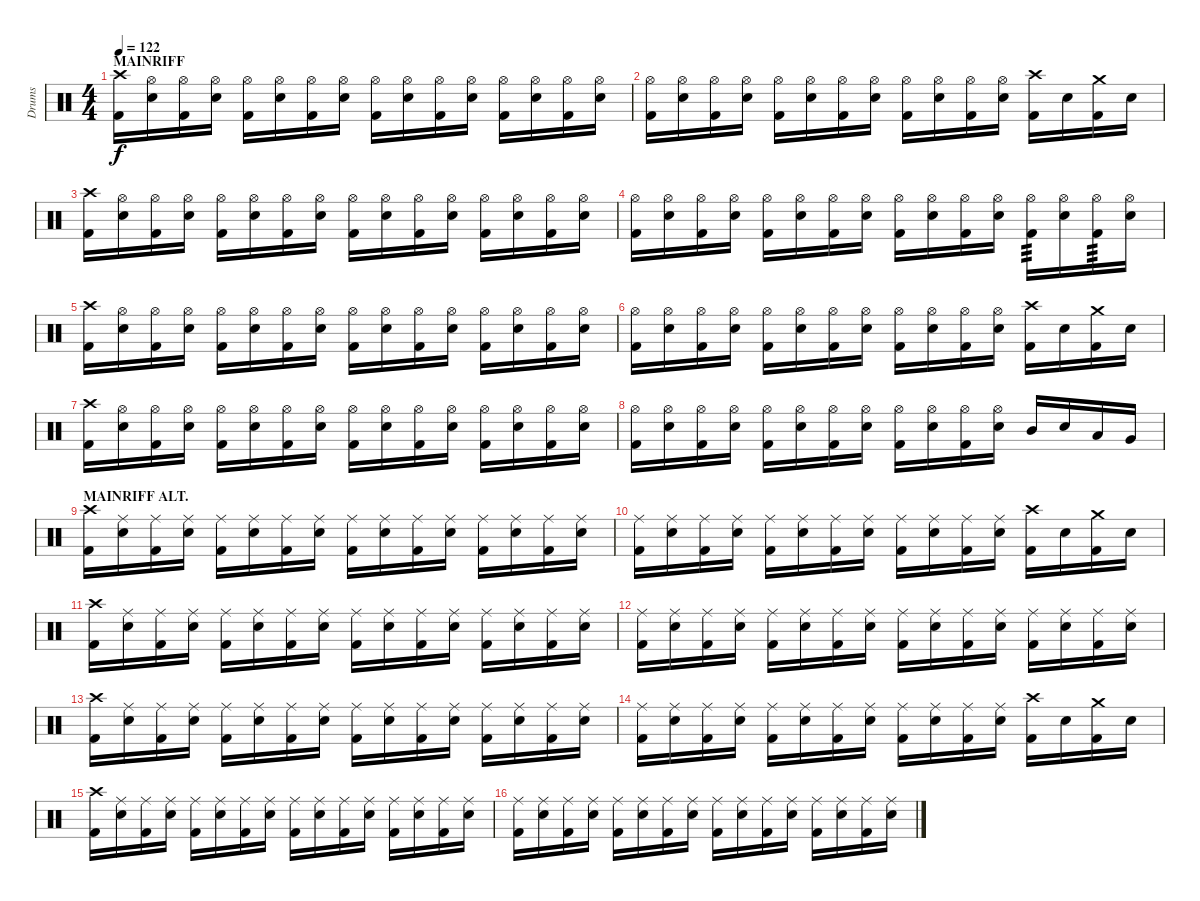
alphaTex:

\track ("Drums" "Drums") {instrument percussion}
\staff {score}
\articulation defaults
\ts (4 4)
\section ("" "MAINRIFF ")
\tempo 122
\clef neutral
\ks c
("Crash high (hit)" "Kick (hit) 2").16{dy f} ("Hi-Hat (open)" "Electric Snare (hit)").16 ("Hi-Hat (open)" "Kick (hit) 2").16 ("Hi-Hat (open)" "Electric Snare (hit)").16 ("Hi-Hat (open)" "Kick (hit) 2").16 ("Hi-Hat (open)" "Electric Snare (hit)").16 ("Hi-Hat (open)" "Kick (hit) 2").16 ("Hi-Hat (open)" "Electric Snare (hit)").16 ("Hi-Hat (open)" "Kick (hit) 2").16 ("Hi-Hat (open)" "Electric Snare (hit)").16 ("Hi-Hat (open)" "Kick (hit) 2").16 ("Hi-Hat (open)" "Electric Snare (hit)").16 ("Hi-Hat (open)" "Kick (hit) 2").16 ("Hi-Hat (open)" "Electric Snare (hit)").16 ("Hi-Hat (open)" "Kick (hit) 2").16 ("Hi-Hat (open)" "Electric Snare (hit)").16 |
("Hi-Hat (open)" "Kick (hit) 2").16 ("Hi-Hat (open)" "Electric Snare (hit)").16 ("Hi-Hat (open)" "Kick (hit) 2").16 ("Hi-Hat (open)" "Electric Snare (hit)").16 ("Hi-Hat (open)" "Kick (hit) 2").16 ("Hi-Hat (open)" "Electric Snare (hit)").16 ("Hi-Hat (open)" "Kick (hit) 2").16 ("Hi-Hat (open)" "Electric Snare (hit)").16 ("Hi-Hat (open)" "Kick (hit) 2").16 ("Hi-Hat (open)" "Electric Snare (hit)").16 ("Hi-Hat (open)" "Kick (hit) 2").16 ("Hi-Hat (open)" "Electric Snare (hit)").16 ("Crash high (hit)" "Kick (hit) 2").16 "Electric Snare (hit)".16 ("Crash medium (hit)" "Kick (hit) 2").16 "Electric Snare (hit)".16 |
("Crash high (hit)" "Kick (hit) 2").16 ("Hi-Hat (open)" "Electric Snare (hit)").16 ("Hi-Hat (open)" "Kick (hit) 2").16 ("Hi-Hat (open)" "Electric Snare (hit)").16 ("Hi-Hat (open)" "Kick (hit) 2").16 ("Hi-Hat (open)" "Electric Snare (hit)").16 ("Hi-Hat (open)" "Kick (hit) 2").16 ("Hi-Hat (open)" "Electric Snare (hit)").16 ("Hi-Hat (open)" "Kick (hit) 2").16 ("Hi-Hat (open)" "Electric Snare (hit)").16 ("Hi-Hat (open)" "Kick (hit) 2").16 ("Hi-Hat (open)" "Electric Snare (hit)").16 ("Hi-Hat (open)" "Kick (hit) 2").16 ("Hi-Hat (open)" "Electric Snare (hit)").16 ("Hi-Hat (open)" "Kick (hit) 2").16 ("Hi-Hat (open)" "Electric Snare (hit)").16 |
("Hi-Hat (open)" "Kick (hit) 2").16 ("Hi-Hat (open)" "Electric Snare (hit)").16 ("Hi-Hat (open)" "Kick (hit) 2").16 ("Hi-Hat (open)" "Electric Snare (hit)").16 ("Hi-Hat (open)" "Kick (hit) 2").16 ("Hi-Hat (open)" "Electric Snare (hit)").16 ("Hi-Hat (open)" "Kick (hit) 2").16 ("Hi-Hat (open)" "Electric Snare (hit)").16 ("Hi-Hat (open)" "Kick (hit) 2").16 ("Hi-Hat (open)" "Electric Snare (hit)").16 ("Hi-Hat (open)" "Kick (hit) 2").16 ("Hi-Hat (open)" "Electric Snare (hit)").16 ("Hi-Hat (open)" "Kick (hit) 2").16{tp 3} ("Hi-Hat (open)" "Electric Snare (hit)").16 ("Hi-Hat (open)" "Kick (hit) 2").16{tp 3} ("Hi-Hat (open)" "Electric Snare (hit)").16 |
("Crash high (hit)" "Kick (hit) 2").16 ("Hi-Hat (open)" "Electric Snare (hit)").16 ("Hi-Hat (open)" "Kick (hit) 2").16 ("Hi-Hat (open)" "Electric Snare (hit)").16 ("Hi-Hat (open)" "Kick (hit) 2").16 ("Hi-Hat (open)" "Electric Snare (hit)").16 ("Hi-Hat (open)" "Kick (hit) 2").16 ("Hi-Hat (open)" "Electric Snare (hit)").16 ("Hi-Hat (open)" "Kick (hit) 2").16 ("Hi-Hat (open)" "Electric Snare (hit)").16 ("Hi-Hat (open)" "Kick (hit) 2").16 ("Hi-Hat (open)" "Electric Snare (hit)").16 ("Hi-Hat (open)" "Kick (hit) 2").16 ("Hi-Hat (open)" "Electric Snare (hit)").16 ("Hi-Hat (open)" "Kick (hit) 2").16 ("Hi-Hat (open)" "Electric Snare (hit)").16 |
("Hi-Hat (open)" "Kick (hit) 2").16 ("Hi-Hat (open)" "Electric Snare (hit)").16 ("Hi-Hat (open)" "Kick (hit) 2").16 ("Hi-Hat (open)" "Electric Snare (hit)").16 ("Hi-Hat (open)" "Kick (hit) 2").16 ("Hi-Hat (open)" "Electric Snare (hit)").16 ("Hi-Hat (open)" "Kick (hit) 2").16 ("Hi-Hat (open)" "Electric Snare (hit)").16 ("Hi-Hat (open)" "Kick (hit) 2").16 ("Hi-Hat (open)" "Electric Snare (hit)").16 ("Hi-Hat (open)" "Kick (hit) 2").16 ("Hi-Hat (open)" "Electric Snare (hit)").16 ("Crash high (hit)" "Kick (hit) 2").16 "Electric Snare (hit)".16 ("Crash medium (hit)" "Kick (hit) 2").16 "Electric Snare (hit)".16 |
("Crash high (hit)" "Kick (hit) 2").16 ("Hi-Hat (open)" "Electric Snare (hit)").16 ("Hi-Hat (open)" "Kick (hit) 2").16 ("Hi-Hat (open)" "Electric Snare (hit)").16 ("Hi-Hat (open)" "Kick (hit) 2").16 ("Hi-Hat (open)" "Electric Snare (hit)").16 ("Hi-Hat (open)" "Kick (hit) 2").16 ("Hi-Hat (open)" "Electric Snare (hit)").16 ("Hi-Hat (open)" "Kick (hit) 2").16 ("Hi-Hat (open)" "Electric Snare (hit)").16 ("Hi-Hat (open)" "Kick (hit) 2").16 ("Hi-Hat (open)" "Electric Snare (hit)").16 ("Hi-Hat (open)" "Kick (hit) 2").16 ("Hi-Hat (open)" "Electric Snare (hit)").16 ("Hi-Hat (open)" "Kick (hit) 2").16 ("Hi-Hat (open)" "Electric Snare (hit)").16 |
("Hi-Hat (open)" "Kick (hit) 2").16 ("Hi-Hat (open)" "Electric Snare (hit)").16 ("Hi-Hat (open)" "Kick (hit) 2").16 ("Hi-Hat (open)" "Electric Snare (hit)").16 ("Hi-Hat (open)" "Kick (hit) 2").16 ("Hi-Hat (open)" "Electric Snare (hit)").16 ("Hi-Hat (open)" "Kick (hit) 2").16 ("Hi-Hat (open)" "Electric Snare (hit)").16 ("Hi-Hat (open)" "Kick (hit) 2").16 ("Hi-Hat (open)" "Electric Snare (hit)").16 ("Hi-Hat (open)" "Kick (hit) 2").16 ("Hi-Hat (open)" "Electric Snare (hit)").16 "Mid Tom (hit)".16 "Electric Snare (hit)".16 "Low Tom (hit)".16 "Very Low Tom (hit)".16 |
\section ("" "MAINRIFF ALT.")
("Crash high (hit)" "Kick (hit) 2").16 ("Ride (middle)" "Electric Snare (hit)").16 ("Ride (middle)" "Kick (hit) 2").16 ("Ride (middle)" "Electric Snare (hit)").16 ("Ride (middle)" "Kick (hit) 2").16 ("Ride (middle)" "Electric Snare (hit)").16 ("Ride (middle)" "Kick (hit) 2").16 ("Ride (middle)" "Electric Snare (hit)").16 ("Ride (middle)" "Kick (hit) 2").16 ("Ride (middle)" "Electric Snare (hit)").16 ("Ride (middle)" "Kick (hit) 2").16 ("Ride (middle)" "Electric Snare (hit)").16 ("Ride (middle)" "Kick (hit) 2").16 ("Ride (middle)" "Electric Snare (hit)").16 ("Ride (middle)" "Kick (hit) 2").16 ("Ride (middle)" "Electric Snare (hit)").16 |
("Ride (middle)" "Kick (hit) 2").16 ("Ride (middle)" "Electric Snare (hit)").16 ("Ride (middle)" "Kick (hit) 2").16 ("Ride (middle)" "Electric Snare (hit)").16 ("Ride (middle)" "Kick (hit) 2").16 ("Ride (middle)" "Electric Snare (hit)").16 ("Ride (middle)" "Kick (hit) 2").16 ("Ride (middle)" "Electric Snare (hit)").16 ("Ride (middle)" "Kick (hit) 2").16 ("Ride (middle)" "Electric Snare (hit)").16 ("Ride (middle)" "Kick (hit) 2").16 ("Ride (middle)" "Electric Snare (hit)").16 ("Crash high (hit)" "Kick (hit) 2").16 "Electric Snare (hit)".16 ("Crash medium (hit)" "Kick (hit) 2").16 "Electric Snare (hit)".16 |
("Crash high (hit)" "Kick (hit) 2").16 ("Ride (middle)" "Electric Snare (hit)").16 ("Ride (middle)" "Kick (hit) 2").16 ("Ride (middle)" "Electric Snare (hit)").16 ("Ride (middle)" "Kick (hit) 2").16 ("Ride (middle)" "Electric Snare (hit)").16 ("Ride (middle)" "Kick (hit) 2").16 ("Ride (middle)" "Electric Snare (hit)").16 ("Ride (middle)" "Kick (hit) 2").16 ("Ride (middle)" "Electric Snare (hit)").16 ("Ride (middle)" "Kick (hit) 2").16 ("Ride (middle)" "Electric Snare (hit)").16 ("Ride (middle)" "Kick (hit) 2").16 ("Ride (middle)" "Electric Snare (hit)").16 ("Ride (middle)" "Kick (hit) 2").16 ("Ride (middle)" "Electric Snare (hit)").16 |
("Ride (middle)" "Kick (hit) 2").16 ("Ride (middle)" "Electric Snare (hit)").16 ("Ride (middle)" "Kick (hit) 2").16 ("Ride (middle)" "Electric Snare (hit)").16 ("Ride (middle)" "Kick (hit) 2").16 ("Ride (middle)" "Electric Snare (hit)").16 ("Ride (middle)" "Kick (hit) 2").16 ("Ride (middle)" "Electric Snare (hit)").16 ("Ride (middle)" "Kick (hit) 2").16 ("Ride (middle)" "Electric Snare (hit)").16 ("Ride (middle)" "Kick (hit) 2").16 ("Ride (middle)" "Electric Snare (hit)").16 ("Ride (middle)" "Kick (hit) 2").16 ("Ride (middle)" "Electric Snare (hit)").16 ("Ride (middle)" "Kick (hit) 2").16 ("Ride (middle)" "Electric Snare (hit)").16 |
("Crash high (hit)" "Kick (hit) 2").16 ("Ride (middle)" "Electric Snare (hit)").16 ("Ride (middle)" "Kick (hit) 2").16 ("Ride (middle)" "Electric Snare (hit)").16 ("Ride (middle)" "Kick (hit) 2").16 ("Ride (middle)" "Electric Snare (hit)").16 ("Ride (middle)" "Kick (hit) 2").16 ("Ride (middle)" "Electric Snare (hit)").16 ("Ride (middle)" "Kick (hit) 2").16 ("Ride (middle)" "Electric Snare (hit)").16 ("Ride (middle)" "Kick (hit) 2").16 ("Ride (middle)" "Electric Snare (hit)").16 ("Ride (middle)" "Kick (hit) 2").16 ("Ride (middle)" "Electric Snare (hit)").16 ("Ride (middle)" "Kick (hit) 2").16 ("Ride (middle)" "Electric Snare (hit)").16 |
("Ride (middle)" "Kick (hit) 2").16 ("Ride (middle)" "Electric Snare (hit)").16 ("Ride (middle)" "Kick (hit) 2").16 ("Ride (middle)" "Electric Snare (hit)").16 ("Ride (middle)" "Kick (hit) 2").16 ("Ride (middle)" "Electric Snare (hit)").16 ("Ride (middle)" "Kick (hit) 2").16 ("Ride (middle)" "Electric Snare (hit)").16 ("Ride (middle)" "Kick (hit) 2").16 ("Ride (middle)" "Electric Snare (hit)").16 ("Ride (middle)" "Kick (hit) 2").16 ("Ride (middle)" "Electric Snare (hit)").16 ("Crash high (hit)" "Kick (hit) 2").16 "Electric Snare (hit)".16 ("Crash medium (hit)" "Kick (hit) 2").16 "Electric Snare (hit)".16 |
("Crash high (hit)" "Kick (hit) 2").16 ("Ride (middle)" "Electric Snare (hit)").16 ("Ride (middle)" "Kick (hit) 2").16 ("Ride (middle)" "Electric Snare (hit)").16 ("Ride (middle)" "Kick (hit) 2").16 ("Ride (middle)" "Electric Snare (hit)").16 ("Ride (middle)" "Kick (hit) 2").16 ("Ride (middle)" "Electric Snare (hit)").16 ("Ride (middle)" "Kick (hit) 2").16 ("Ride (middle)" "Electric Snare (hit)").16 ("Ride (middle)" "Kick (hit) 2").16 ("Ride (middle)" "Electric Snare (hit)").16 ("Ride (middle)" "Kick (hit) 2").16 ("Ride (middle)" "Electric Snare (hit)").16 ("Ride (middle)" "Kick (hit) 2").16 ("Ride (middle)" "Electric Snare (hit)").16 |
("Ride (middle)" "Kick (hit) 2").16 ("Ride (middle)" "Electric Snare (hit)").16 ("Ride (middle)" "Kick (hit) 2").16 ("Ride (middle)" "Electric Snare (hit)").16 ("Ride (middle)" "Kick (hit) 2").16 ("Ride (middle)" "Electric Snare (hit)").16 ("Ride (middle)" "Kick (hit) 2").16 ("Ride (middle)" "Electric Snare (hit)").16 ("Ride (middle)" "Kick (hit) 2").16 ("Ride (middle)" "Electric Snare (hit)").16 ("Ride (middle)" "Kick (hit) 2").16 ("Ride (middle)" "Electric Snare (hit)").16 ("Ride (middle)" "Kick (hit) 2").16 ("Ride (middle)" "Electric Snare (hit)").16 ("Ride (middle)" "Kick (hit) 2").16 ("Ride (middle)" "Electric Snare (hit)").16
